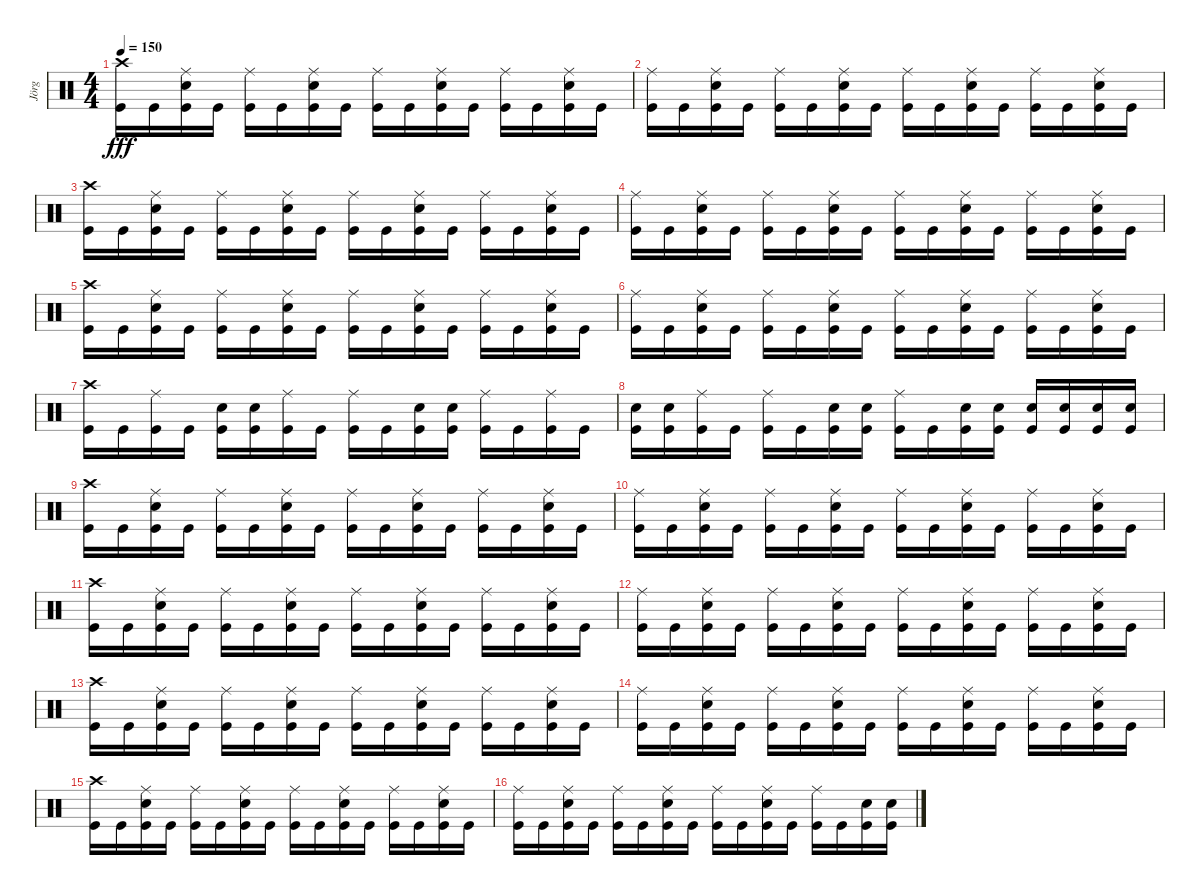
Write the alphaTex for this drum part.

\track ("Jörg" "Jörg") {instrument percussion}
\staff {score}
\articulation defaults
\ts (4 4)
\tempo 150
\clef neutral
\ks c
("Crash high (hit)" "Kick (hit)").16{dy fff} "Kick (hit)".16 ("Ride (middle)" "Snare (hit) 2" "Kick (hit)").16 "Kick (hit)".16 ("Ride (middle)" "Kick (hit)").16 "Kick (hit)".16 ("Ride (middle)" "Snare (hit) 2" "Kick (hit)").16 "Kick (hit)".16 ("Ride (middle)" "Kick (hit)").16 "Kick (hit)".16 ("Ride (middle)" "Snare (hit) 2" "Kick (hit)").16 "Kick (hit)".16 ("Ride (middle)" "Kick (hit)").16 "Kick (hit)".16 ("Ride (middle)" "Snare (hit) 2" "Kick (hit)").16 "Kick (hit)".16 |
("Ride (middle)" "Kick (hit)").16 "Kick (hit)".16 ("Ride (middle)" "Snare (hit) 2" "Kick (hit)").16 "Kick (hit)".16 ("Ride (middle)" "Kick (hit)").16 "Kick (hit)".16 ("Ride (middle)" "Snare (hit) 2" "Kick (hit)").16 "Kick (hit)".16 ("Ride (middle)" "Kick (hit)").16 "Kick (hit)".16 ("Ride (middle)" "Snare (hit) 2" "Kick (hit)").16 "Kick (hit)".16 ("Ride (middle)" "Kick (hit)").16 "Kick (hit)".16 ("Ride (middle)" "Snare (hit) 2" "Kick (hit)").16 "Kick (hit)".16 |
("Crash high (hit)" "Kick (hit)").16 "Kick (hit)".16 ("Ride (middle)" "Snare (hit) 2" "Kick (hit)").16 "Kick (hit)".16 ("Ride (middle)" "Kick (hit)").16 "Kick (hit)".16 ("Ride (middle)" "Snare (hit) 2" "Kick (hit)").16 "Kick (hit)".16 ("Ride (middle)" "Kick (hit)").16 "Kick (hit)".16 ("Ride (middle)" "Snare (hit) 2" "Kick (hit)").16 "Kick (hit)".16 ("Ride (middle)" "Kick (hit)").16 "Kick (hit)".16 ("Ride (middle)" "Snare (hit) 2" "Kick (hit)").16 "Kick (hit)".16 |
("Ride (middle)" "Kick (hit)").16 "Kick (hit)".16 ("Ride (middle)" "Snare (hit) 2" "Kick (hit)").16 "Kick (hit)".16 ("Ride (middle)" "Kick (hit)").16 "Kick (hit)".16 ("Ride (middle)" "Snare (hit) 2" "Kick (hit)").16 "Kick (hit)".16 ("Ride (middle)" "Kick (hit)").16 "Kick (hit)".16 ("Ride (middle)" "Snare (hit) 2" "Kick (hit)").16 "Kick (hit)".16 ("Ride (middle)" "Kick (hit)").16 "Kick (hit)".16 ("Ride (middle)" "Snare (hit) 2" "Kick (hit)").16 "Kick (hit)".16 |
("Crash high (hit)" "Kick (hit)").16 "Kick (hit)".16 ("Ride (middle)" "Snare (hit) 2" "Kick (hit)").16 "Kick (hit)".16 ("Ride (middle)" "Kick (hit)").16 "Kick (hit)".16 ("Ride (middle)" "Snare (hit) 2" "Kick (hit)").16 "Kick (hit)".16 ("Ride (middle)" "Kick (hit)").16 "Kick (hit)".16 ("Ride (middle)" "Snare (hit) 2" "Kick (hit)").16 "Kick (hit)".16 ("Ride (middle)" "Kick (hit)").16 "Kick (hit)".16 ("Ride (middle)" "Snare (hit) 2" "Kick (hit)").16 "Kick (hit)".16 |
("Ride (middle)" "Kick (hit)").16 "Kick (hit)".16 ("Ride (middle)" "Snare (hit) 2" "Kick (hit)").16 "Kick (hit)".16 ("Ride (middle)" "Kick (hit)").16 "Kick (hit)".16 ("Ride (middle)" "Snare (hit) 2" "Kick (hit)").16 "Kick (hit)".16 ("Ride (middle)" "Kick (hit)").16 "Kick (hit)".16 ("Ride (middle)" "Snare (hit) 2" "Kick (hit)").16 "Kick (hit)".16 ("Ride (middle)" "Kick (hit)").16 "Kick (hit)".16 ("Ride (middle)" "Snare (hit) 2" "Kick (hit)").16 "Kick (hit)".16 |
("Crash high (hit)" "Kick (hit)").16 "Kick (hit)".16 ("Ride (middle)" "Kick (hit)").16 "Kick (hit)".16 ("Snare (hit) 2" "Kick (hit)").16 ("Snare (hit) 2" "Kick (hit)").16 ("Ride (middle)" "Kick (hit)").16 "Kick (hit)".16 ("Kick (hit)" "Ride (middle)").16 "Kick (hit)".16 ("Snare (hit) 2" "Kick (hit)").16 ("Snare (hit) 2" "Kick (hit)").16 ("Ride (middle)" "Kick (hit)").16 "Kick (hit)".16 ("Ride (middle)" "Kick (hit)").16 "Kick (hit)".16 |
("Snare (hit) 2" "Kick (hit)").16 ("Snare (hit) 2" "Kick (hit)").16 ("Ride (middle)" "Kick (hit)").16 "Kick (hit)".16 ("Kick (hit)" "Ride (middle)").16 "Kick (hit)".16 ("Snare (hit) 2" "Kick (hit)").16 ("Snare (hit) 2" "Kick (hit)").16 ("Kick (hit)" "Ride (middle)").16 "Kick (hit)".16 ("Snare (hit) 2" "Kick (hit)").16 ("Snare (hit) 2" "Kick (hit)").16 ("Snare (hit) 2" "Kick (hit)").16 ("Snare (hit) 2" "Kick (hit)").16 ("Snare (hit) 2" "Kick (hit)").16 ("Snare (hit) 2" "Kick (hit)").16 |
("Crash high (hit)" "Kick (hit)").16 "Kick (hit)".16 ("Ride (middle)" "Snare (hit) 2" "Kick (hit)").16 "Kick (hit)".16 ("Ride (middle)" "Kick (hit)").16 "Kick (hit)".16 ("Ride (middle)" "Snare (hit) 2" "Kick (hit)").16 "Kick (hit)".16 ("Ride (middle)" "Kick (hit)").16 "Kick (hit)".16 ("Ride (middle)" "Snare (hit) 2" "Kick (hit)").16 "Kick (hit)".16 ("Ride (middle)" "Kick (hit)").16 "Kick (hit)".16 ("Ride (middle)" "Snare (hit) 2" "Kick (hit)").16 "Kick (hit)".16 |
("Ride (middle)" "Kick (hit)").16 "Kick (hit)".16 ("Ride (middle)" "Snare (hit) 2" "Kick (hit)").16 "Kick (hit)".16 ("Ride (middle)" "Kick (hit)").16 "Kick (hit)".16 ("Ride (middle)" "Snare (hit) 2" "Kick (hit)").16 "Kick (hit)".16 ("Ride (middle)" "Kick (hit)").16 "Kick (hit)".16 ("Ride (middle)" "Snare (hit) 2" "Kick (hit)").16 "Kick (hit)".16 ("Ride (middle)" "Kick (hit)").16 "Kick (hit)".16 ("Ride (middle)" "Snare (hit) 2" "Kick (hit)").16 "Kick (hit)".16 |
("Crash high (hit)" "Kick (hit)").16 "Kick (hit)".16 ("Ride (middle)" "Snare (hit) 2" "Kick (hit)").16 "Kick (hit)".16 ("Ride (middle)" "Kick (hit)").16 "Kick (hit)".16 ("Ride (middle)" "Snare (hit) 2" "Kick (hit)").16 "Kick (hit)".16 ("Ride (middle)" "Kick (hit)").16 "Kick (hit)".16 ("Ride (middle)" "Snare (hit) 2" "Kick (hit)").16 "Kick (hit)".16 ("Ride (middle)" "Kick (hit)").16 "Kick (hit)".16 ("Ride (middle)" "Snare (hit) 2" "Kick (hit)").16 "Kick (hit)".16 |
("Ride (middle)" "Kick (hit)").16 "Kick (hit)".16 ("Ride (middle)" "Snare (hit) 2" "Kick (hit)").16 "Kick (hit)".16 ("Ride (middle)" "Kick (hit)").16 "Kick (hit)".16 ("Ride (middle)" "Snare (hit) 2" "Kick (hit)").16 "Kick (hit)".16 ("Ride (middle)" "Kick (hit)").16 "Kick (hit)".16 ("Ride (middle)" "Snare (hit) 2" "Kick (hit)").16 "Kick (hit)".16 ("Ride (middle)" "Kick (hit)").16 "Kick (hit)".16 ("Ride (middle)" "Snare (hit) 2" "Kick (hit)").16 "Kick (hit)".16 |
("Crash high (hit)" "Kick (hit)").16 "Kick (hit)".16 ("Ride (middle)" "Snare (hit) 2" "Kick (hit)").16 "Kick (hit)".16 ("Ride (middle)" "Kick (hit)").16 "Kick (hit)".16 ("Ride (middle)" "Snare (hit) 2" "Kick (hit)").16 "Kick (hit)".16 ("Ride (middle)" "Kick (hit)").16 "Kick (hit)".16 ("Ride (middle)" "Snare (hit) 2" "Kick (hit)").16 "Kick (hit)".16 ("Ride (middle)" "Kick (hit)").16 "Kick (hit)".16 ("Ride (middle)" "Snare (hit) 2" "Kick (hit)").16 "Kick (hit)".16 |
("Ride (middle)" "Kick (hit)").16 "Kick (hit)".16 ("Ride (middle)" "Snare (hit) 2" "Kick (hit)").16 "Kick (hit)".16 ("Ride (middle)" "Kick (hit)").16 "Kick (hit)".16 ("Ride (middle)" "Snare (hit) 2" "Kick (hit)").16 "Kick (hit)".16 ("Ride (middle)" "Kick (hit)").16 "Kick (hit)".16 ("Ride (middle)" "Snare (hit) 2" "Kick (hit)").16 "Kick (hit)".16 ("Ride (middle)" "Kick (hit)").16 "Kick (hit)".16 ("Ride (middle)" "Snare (hit) 2" "Kick (hit)").16 "Kick (hit)".16 |
("Crash high (hit)" "Kick (hit)").16 "Kick (hit)".16 ("Ride (middle)" "Snare (hit) 2" "Kick (hit)").16 "Kick (hit)".16 ("Ride (middle)" "Kick (hit)").16 "Kick (hit)".16 ("Ride (middle)" "Snare (hit) 2" "Kick (hit)").16 "Kick (hit)".16 ("Ride (middle)" "Kick (hit)").16 "Kick (hit)".16 ("Ride (middle)" "Snare (hit) 2" "Kick (hit)").16 "Kick (hit)".16 ("Ride (middle)" "Kick (hit)").16 "Kick (hit)".16 ("Ride (middle)" "Snare (hit) 2" "Kick (hit)").16 "Kick (hit)".16 |
("Ride (middle)" "Kick (hit)").16 "Kick (hit)".16 ("Ride (middle)" "Snare (hit) 2" "Kick (hit)").16 "Kick (hit)".16 ("Ride (middle)" "Kick (hit)").16 "Kick (hit)".16 ("Ride (middle)" "Snare (hit) 2" "Kick (hit)").16 "Kick (hit)".16 ("Ride (middle)" "Kick (hit)").16 "Kick (hit)".16 ("Ride (middle)" "Snare (hit) 2" "Kick (hit)").16 "Kick (hit)".16 ("Kick (hit)" "Ride (middle)").16 "Kick (hit)".16 ("Snare (hit) 2" "Kick (hit)").16 ("Snare (hit) 2" "Kick (hit)").16
